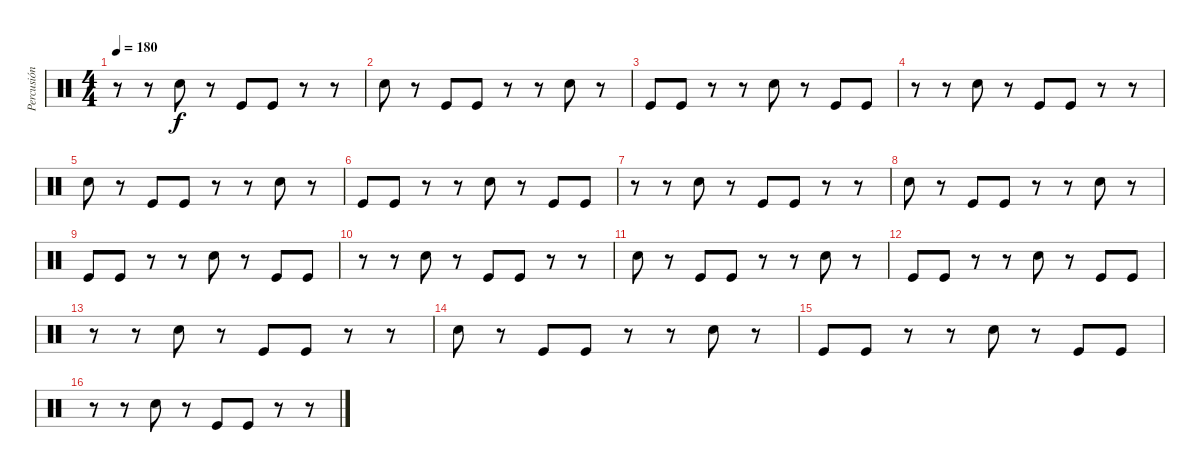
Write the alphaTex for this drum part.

\track ("Percusión" "Percusión") {instrument percussion}
\staff {score}
\articulation defaults
\ts (4 4)
\tempo 180
\clef neutral
\ks c
r.8{dy f} r.8 "Snare (hit) 2".8 r.8 "Kick (hit)".8 "Kick (hit)".8 r.8 r.8 |
"Snare (hit) 2".8 r.8 "Kick (hit)".8 "Kick (hit)".8 r.8 r.8 "Snare (hit) 2".8 r.8 |
"Kick (hit)".8 "Kick (hit)".8 r.8 r.8 "Snare (hit) 2".8 r.8 "Kick (hit)".8 "Kick (hit)".8 |
r.8 r.8 "Snare (hit) 2".8 r.8 "Kick (hit)".8 "Kick (hit)".8 r.8 r.8 |
"Snare (hit) 2".8 r.8 "Kick (hit)".8 "Kick (hit)".8 r.8 r.8 "Snare (hit) 2".8 r.8 |
"Kick (hit)".8 "Kick (hit)".8 r.8 r.8 "Snare (hit) 2".8 r.8 "Kick (hit)".8 "Kick (hit)".8 |
r.8 r.8 "Snare (hit) 2".8 r.8 "Kick (hit)".8 "Kick (hit)".8 r.8 r.8 |
"Snare (hit) 2".8 r.8 "Kick (hit)".8 "Kick (hit)".8 r.8 r.8 "Snare (hit) 2".8 r.8 |
"Kick (hit)".8 "Kick (hit)".8 r.8 r.8 "Snare (hit) 2".8 r.8 "Kick (hit)".8 "Kick (hit)".8 |
r.8 r.8 "Snare (hit) 2".8 r.8 "Kick (hit)".8 "Kick (hit)".8 r.8 r.8 |
"Snare (hit) 2".8 r.8 "Kick (hit)".8 "Kick (hit)".8 r.8 r.8 "Snare (hit) 2".8 r.8 |
"Kick (hit)".8 "Kick (hit)".8 r.8 r.8 "Snare (hit) 2".8 r.8 "Kick (hit)".8 "Kick (hit)".8 |
r.8 r.8 "Snare (hit) 2".8 r.8 "Kick (hit)".8 "Kick (hit)".8 r.8 r.8 |
"Snare (hit) 2".8 r.8 "Kick (hit)".8 "Kick (hit)".8 r.8 r.8 "Snare (hit) 2".8 r.8 |
"Kick (hit)".8 "Kick (hit)".8 r.8 r.8 "Snare (hit) 2".8 r.8 "Kick (hit)".8 "Kick (hit)".8 |
r.8 r.8 "Snare (hit) 2".8 r.8 "Kick (hit)".8 "Kick (hit)".8 r.8 r.8
